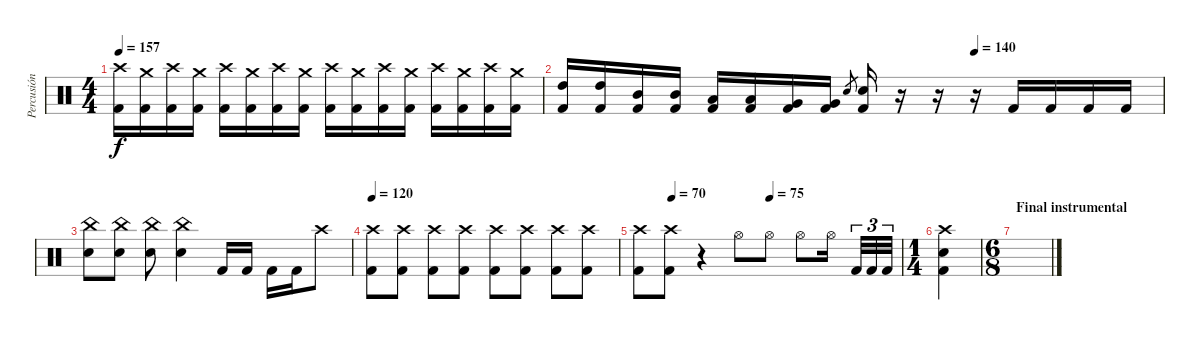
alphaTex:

\track ("Percusión" "Percusión") {instrument percussion}
\staff {score}
\articulation defaults
\ts (4 4)
\tempo 157
\clef neutral
\ks c
("Crash high (hit)" "Kick (hit) 2").16{dy f} ("Crash medium (hit)" "Kick (hit) 2").16 ("Crash high (hit)" "Kick (hit) 2").16 ("Crash medium (hit)" "Kick (hit) 2").16 ("Crash high (hit)" "Kick (hit) 2").16 ("Crash medium (hit)" "Kick (hit) 2").16 ("Crash high (hit)" "Kick (hit) 2").16 ("Crash medium (hit)" "Kick (hit) 2").16 ("Crash high (hit)" "Kick (hit) 2").16 ("Crash medium (hit)" "Kick (hit) 2").16 ("Crash high (hit)" "Kick (hit) 2").16 ("Crash medium (hit)" "Kick (hit) 2").16 ("Crash high (hit)" "Kick (hit) 2").16 ("Crash medium (hit)" "Kick (hit) 2").16 ("Crash high (hit)" "Kick (hit) 2").16 ("Crash medium (hit)" "Kick (hit) 2").16 |
\tempo (140 0.6875)
("High Tom (hit)" "Kick (hit) 2").16 ("High Tom (hit)" "Kick (hit) 2").16 ("Mid Tom (hit)" "Kick (hit) 2").16 ("Mid Tom (hit)" "Kick (hit) 2").16 ("Low Tom (hit)" "Kick (hit) 2").16 ("Low Tom (hit)" "Kick (hit) 2").16 ("Very Low Tom (hit)" "Kick (hit) 2").16 ("Very Low Tom (hit)" "Kick (hit) 2").16 "Snare (hit) 2".8{gr} ("Snare (hit) 2" "Kick (hit) 2").16 r.16 r.16 r.16 "Kick (hit) 2".16 "Kick (hit) 2".16 "Kick (hit) 2".16 "Kick (hit) 2".16 |
("China (hit)" "Snare (hit) 2").8 ("China (hit)" "Snare (hit) 2").8 ("China (hit)" "Snare (hit) 2").8 ("China (hit)" "Snare (hit) 2").4 "Kick (hit) 2".16 "Kick (hit) 2".16 "Kick (hit) 2".16 "Kick (hit) 2".16 "Crash high (hit)".8 |
\tempo 120
("Crash high (hit)" "Kick (hit) 2").8 ("Crash high (hit)" "Kick (hit) 2").8 ("Crash high (hit)" "Kick (hit) 2").8 ("Crash high (hit)" "Kick (hit) 2").8 ("Crash high (hit)" "Kick (hit) 2").8 ("Crash high (hit)" "Kick (hit) 2").8 ("Crash high (hit)" "Kick (hit) 2").8 ("Crash high (hit)" "Kick (hit) 2").8 |
\tempo (70 0.125)
\tempo (75 0.5)
("Crash high (hit)" "Kick (hit) 2").8 ("Crash high (hit)" "Kick (hit) 2").8 r.4 "Hi-Hat (open)".8 "Hi-Hat (open)".8 "Hi-Hat (open)".8 "Hi-Hat (open)".16 "Kick (hit) 2".32{tu (3 2)} "Kick (hit) 2".32{tu (3 2)} "Kick (hit) 2".32{tu (3 2)} |
\ts (1 4)
("Crash high (hit)" "Snare (hit) 2" "Kick (hit) 2").4{volume 0} |
\ts (6 8)
\section ("" "Final instrumental")
